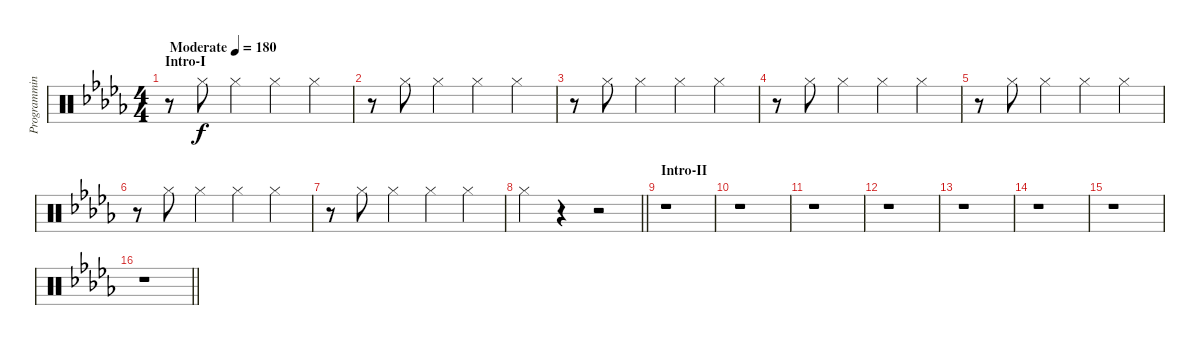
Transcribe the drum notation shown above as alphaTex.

\track ("Programming" "Programmin") {instrument percussion}
\staff {score}
\articulation defaults
\ts (4 4)
\section ("" "Intro-I")
\tempo (180 "Moderate")
\clef neutral
\ks db
r.8{dy f} "Hi-Hat (closed)".8 "Hi-Hat (closed)".4 "Hi-Hat (closed)".4 "Hi-Hat (closed)".4 |
r.8 "Hi-Hat (closed)".8 "Hi-Hat (closed)".4 "Hi-Hat (closed)".4 "Hi-Hat (closed)".4 |
r.8 "Hi-Hat (closed)".8 "Hi-Hat (closed)".4 "Hi-Hat (closed)".4 "Hi-Hat (closed)".4 |
r.8 "Hi-Hat (closed)".8 "Hi-Hat (closed)".4 "Hi-Hat (closed)".4 "Hi-Hat (closed)".4 |
r.8 "Hi-Hat (closed)".8 "Hi-Hat (closed)".4 "Hi-Hat (closed)".4 "Hi-Hat (closed)".4 |
r.8 "Hi-Hat (closed)".8 "Hi-Hat (closed)".4 "Hi-Hat (closed)".4 "Hi-Hat (closed)".4 |
r.8 "Hi-Hat (closed)".8 "Hi-Hat (closed)".4 "Hi-Hat (closed)".4 "Hi-Hat (closed)".4 |
\barLineRight lightlight "Hi-Hat (closed)".4
r.4 r.2 |
\section ("" "Intro-II")
r.1 |
r.1 |
r.1 |
r.1 |
r.1 |
r.1 |
r.1 |
\barLineRight lightlight
r.1
